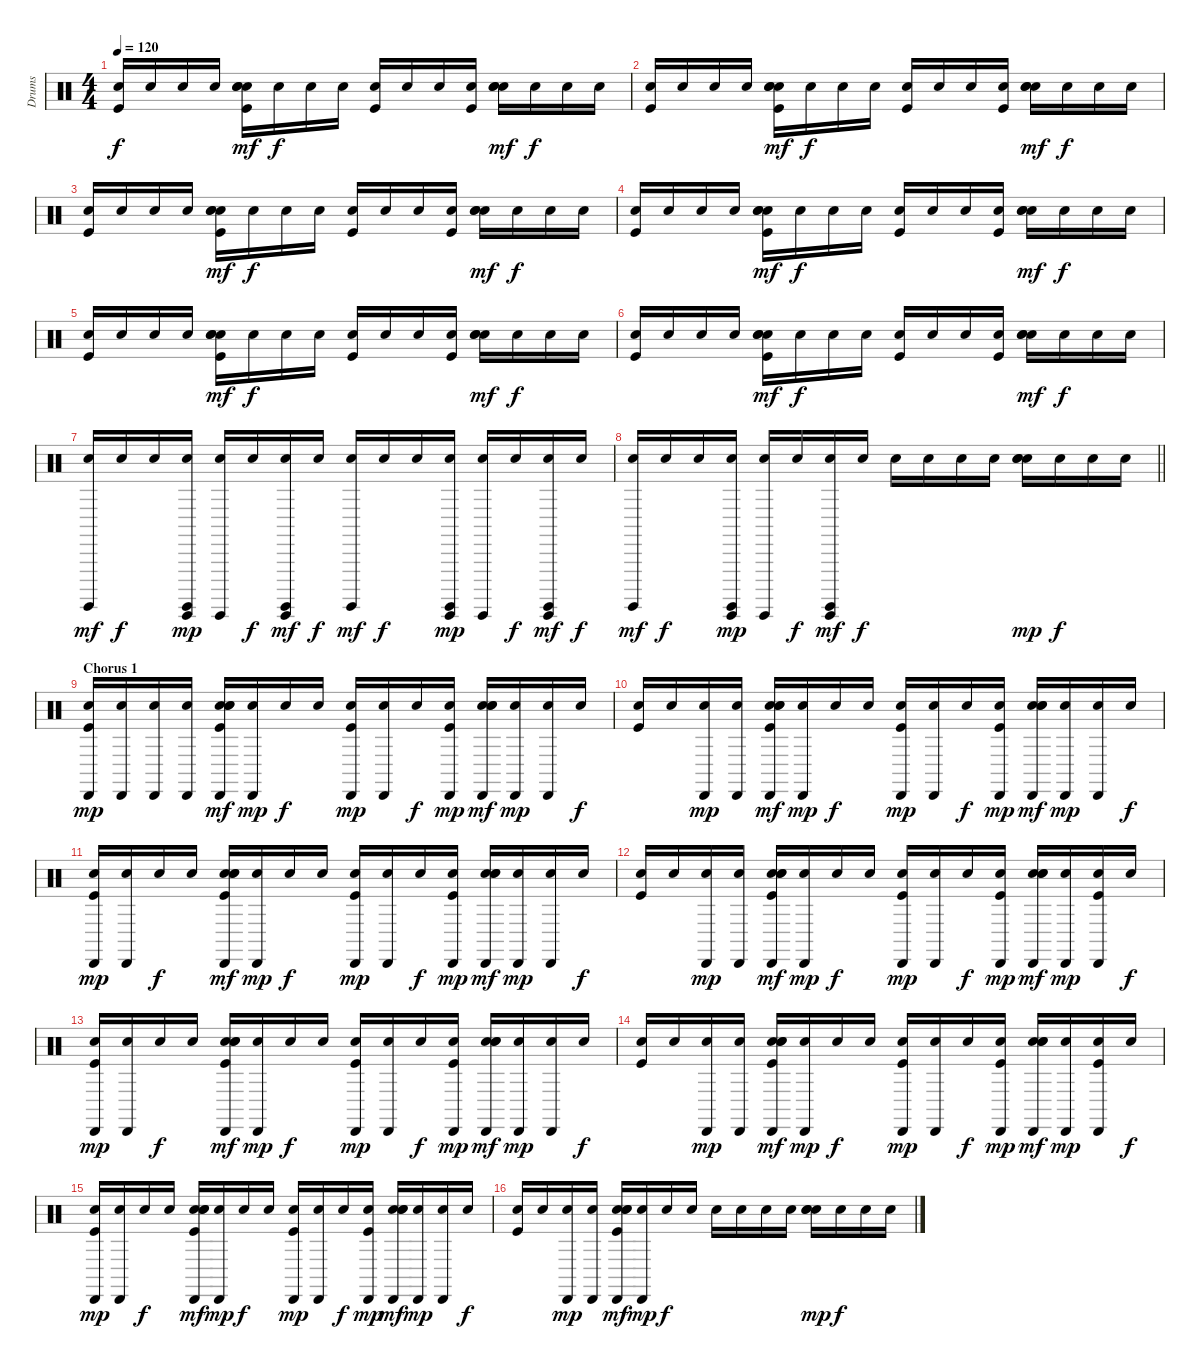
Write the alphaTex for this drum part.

\track ("Drums" "Drums") {instrument percussion}
\staff {score}
\articulation defaults
\ts (4 4)
\tempo 120
\clef neutral
\ks c
("Snare (hit)" "Kick (hit)").16{dy f} "Snare (hit)".16 "Snare (hit)".16 "Snare (hit)".16 ("Snare (hit)" "Hand Clap (hit)" "Electric Snare (hit)" "Kick (hit)").16{dy mf} "Snare (hit)".16{dy f} "Snare (hit)".16 "Snare (hit)".16 ("Snare (hit)" "Kick (hit)").16 "Snare (hit)".16 "Snare (hit)".16 ("Snare (hit)" "Kick (hit)").16 ("Snare (hit)" "Hand Clap (hit)" "Electric Snare (hit)").16{dy mf} "Snare (hit)".16{dy f} "Snare (hit)".16 "Snare (hit)".16 |
("Snare (hit)" "Kick (hit)").16 "Snare (hit)".16 "Snare (hit)".16 "Snare (hit)".16 ("Snare (hit)" "Hand Clap (hit)" "Electric Snare (hit)" "Kick (hit)").16{dy mf} "Snare (hit)".16{dy f} "Snare (hit)".16 "Snare (hit)".16 ("Snare (hit)" "Kick (hit)").16 "Snare (hit)".16 "Snare (hit)".16 ("Snare (hit)" "Kick (hit)").16 ("Snare (hit)" "Hand Clap (hit)" "Electric Snare (hit)").16{dy mf} "Snare (hit)".16{dy f} "Snare (hit)".16 "Snare (hit)".16 |
("Snare (hit)" "Kick (hit)").16 "Snare (hit)".16 "Snare (hit)".16 "Snare (hit)".16 ("Snare (hit)" "Hand Clap (hit)" "Electric Snare (hit)" "Kick (hit)").16{dy mf} "Snare (hit)".16{dy f} "Snare (hit)".16 "Snare (hit)".16 ("Snare (hit)" "Kick (hit)").16 "Snare (hit)".16 "Snare (hit)".16 ("Snare (hit)" "Kick (hit)").16 ("Snare (hit)" "Hand Clap (hit)" "Electric Snare (hit)").16{dy mf} "Snare (hit)".16{dy f} "Snare (hit)".16 "Snare (hit)".16 |
("Snare (hit)" "Kick (hit)").16 "Snare (hit)".16 "Snare (hit)".16 "Snare (hit)".16 ("Snare (hit)" "Hand Clap (hit)" "Electric Snare (hit)" "Kick (hit)").16{dy mf} "Snare (hit)".16{dy f} "Snare (hit)".16 "Snare (hit)".16 ("Snare (hit)" "Kick (hit)").16 "Snare (hit)".16 "Snare (hit)".16 ("Snare (hit)" "Kick (hit)").16 ("Snare (hit)" "Hand Clap (hit)" "Electric Snare (hit)").16{dy mf} "Snare (hit)".16{dy f} "Snare (hit)".16 "Snare (hit)".16 |
("Snare (hit)" "Kick (hit)").16 "Snare (hit)".16 "Snare (hit)".16 "Snare (hit)".16 ("Snare (hit)" "Hand Clap (hit)" "Electric Snare (hit)" "Kick (hit)").16{dy mf} "Snare (hit)".16{dy f} "Snare (hit)".16 "Snare (hit)".16 ("Snare (hit)" "Kick (hit)").16 "Snare (hit)".16 "Snare (hit)".16 ("Snare (hit)" "Kick (hit)").16 ("Snare (hit)" "Hand Clap (hit)" "Electric Snare (hit)").16{dy mf} "Snare (hit)".16{dy f} "Snare (hit)".16 "Snare (hit)".16 |
("Snare (hit)" "Kick (hit)").16 "Snare (hit)".16 "Snare (hit)".16 "Snare (hit)".16 ("Snare (hit)" "Hand Clap (hit)" "Electric Snare (hit)" "Kick (hit)").16{dy mf} "Snare (hit)".16{dy f} "Snare (hit)".16 "Snare (hit)".16 ("Snare (hit)" "Kick (hit)").16 "Snare (hit)".16 "Snare (hit)".16 ("Snare (hit)" "Kick (hit)").16 ("Snare (hit)" "Hand Clap (hit)" "Electric Snare (hit)").16{dy mf} "Snare (hit)".16{dy f} "Snare (hit)".16 "Snare (hit)".16 |
("Snare (hit)" "Surdo (hit)").16{dy mf} "Snare (hit)".16{dy f} "Snare (hit)".16 ("Snare (hit)" "Guiro (hit)" "Surdo (hit)").16{dy mp} ("Snare (hit)" "Guiro (hit)").16 "Snare (hit)".16{dy f} ("Snare (hit)" "Guiro (hit)" "Surdo (hit)").16{dy mf} "Snare (hit)".16{dy f} ("Snare (hit)" "Surdo (hit)").16{dy mf} "Snare (hit)".16{dy f} "Snare (hit)".16 ("Snare (hit)" "Guiro (hit)" "Surdo (hit)").16{dy mp} ("Snare (hit)" "Guiro (hit)").16 "Snare (hit)".16{dy f} ("Snare (hit)" "Guiro (hit)" "Surdo (hit)").16{dy mf} "Snare (hit)".16{dy f} |
\barLineRight lightlight
("Snare (hit)" "Surdo (hit)").16{dy mf} "Snare (hit)".16{dy f} "Snare (hit)".16 ("Snare (hit)" "Guiro (hit)" "Surdo (hit)").16{dy mp} ("Snare (hit)" "Guiro (hit)").16 "Snare (hit)".16{dy f} ("Snare (hit)" "Guiro (hit)" "Surdo (hit)").16{dy mf} "Snare (hit)".16{dy f} "Snare (hit)".16 "Snare (hit)".16 "Snare (hit)".16 "Snare (hit)".16 ("Snare (hit)" "Hand Clap (hit)" "Electric Snare (hit)").16{dy mp} "Snare (hit)".16{dy f} "Snare (hit)".16 "Snare (hit)".16 |
\section ("" "Chorus 1")
("Snare (hit)" "Cabasa (hit)" "Kick (hit)").16{dy mp} ("Snare (hit)" "Cabasa (hit)").16 ("Snare (hit)" "Cabasa (hit)").16 ("Snare (hit)" "Cabasa (hit)").16 ("Snare (hit)" "Cabasa (hit)" "Hand Clap (hit)" "Electric Snare (hit)" "Kick (hit)").16{dy mf} ("Snare (hit)" "Cabasa (hit)").16{dy mp} "Snare (hit)".16{dy f} "Snare (hit)".16 ("Snare (hit)" "Cabasa (hit)" "Kick (hit)").16{dy mp} ("Snare (hit)" "Cabasa (hit)").16 "Snare (hit)".16{dy f} ("Snare (hit)" "Cabasa (hit)" "Kick (hit)").16{dy mp} ("Snare (hit)" "Cabasa (hit)" "Hand Clap (hit)" "Electric Snare (hit)").16{dy mf} ("Snare (hit)" "Cabasa (hit)").16{dy mp} ("Snare (hit)" "Cabasa (hit)").16 "Snare (hit)".16{dy f} |
("Snare (hit)" "Kick (hit)").16 "Snare (hit)".16 ("Snare (hit)" "Cabasa (hit)").16{dy mp} ("Snare (hit)" "Cabasa (hit)").16 ("Snare (hit)" "Cabasa (hit)" "Hand Clap (hit)" "Electric Snare (hit)" "Kick (hit)").16{dy mf} ("Snare (hit)" "Cabasa (hit)").16{dy mp} "Snare (hit)".16{dy f} "Snare (hit)".16 ("Snare (hit)" "Cabasa (hit)" "Kick (hit)").16{dy mp} ("Snare (hit)" "Cabasa (hit)").16 "Snare (hit)".16{dy f} ("Snare (hit)" "Cabasa (hit)" "Kick (hit)").16{dy mp} ("Snare (hit)" "Cabasa (hit)" "Hand Clap (hit)" "Electric Snare (hit)").16{dy mf} ("Snare (hit)" "Cabasa (hit)").16{dy mp} ("Snare (hit)" "Cabasa (hit)").16 "Snare (hit)".16{dy f} |
("Snare (hit)" "Cabasa (hit)" "Kick (hit)").16{dy mp} ("Snare (hit)" "Cabasa (hit)").16 "Snare (hit)".16{dy f} "Snare (hit)".16 ("Snare (hit)" "Cabasa (hit)" "Hand Clap (hit)" "Electric Snare (hit)" "Kick (hit)").16{dy mf} ("Snare (hit)" "Cabasa (hit)").16{dy mp} "Snare (hit)".16{dy f} "Snare (hit)".16 ("Snare (hit)" "Cabasa (hit)" "Kick (hit)").16{dy mp} ("Snare (hit)" "Cabasa (hit)").16 "Snare (hit)".16{dy f} ("Snare (hit)" "Cabasa (hit)" "Kick (hit)").16{dy mp} ("Snare (hit)" "Cabasa (hit)" "Hand Clap (hit)" "Electric Snare (hit)").16{dy mf} ("Snare (hit)" "Cabasa (hit)").16{dy mp} ("Snare (hit)" "Cabasa (hit)").16 "Snare (hit)".16{dy f} |
("Snare (hit)" "Kick (hit)").16 "Snare (hit)".16 ("Snare (hit)" "Cabasa (hit)").16{dy mp} ("Snare (hit)" "Cabasa (hit)").16 ("Snare (hit)" "Cabasa (hit)" "Hand Clap (hit)" "Electric Snare (hit)" "Kick (hit)").16{dy mf} ("Snare (hit)" "Cabasa (hit)").16{dy mp} "Snare (hit)".16{dy f} "Snare (hit)".16 ("Snare (hit)" "Cabasa (hit)" "Kick (hit)").16{dy mp} ("Snare (hit)" "Cabasa (hit)").16 "Snare (hit)".16{dy f} ("Snare (hit)" "Cabasa (hit)" "Kick (hit)").16{dy mp} ("Snare (hit)" "Cabasa (hit)" "Hand Clap (hit)" "Electric Snare (hit)").16{dy mf} ("Snare (hit)" "Cabasa (hit)").16{dy mp} ("Snare (hit)" "Cabasa (hit)" "Kick (hit)").16 "Snare (hit)".16{dy f} |
("Snare (hit)" "Cabasa (hit)" "Kick (hit)").16{dy mp} ("Snare (hit)" "Cabasa (hit)").16 "Snare (hit)".16{dy f} "Snare (hit)".16 ("Snare (hit)" "Cabasa (hit)" "Hand Clap (hit)" "Electric Snare (hit)" "Kick (hit)").16{dy mf} ("Snare (hit)" "Cabasa (hit)").16{dy mp} "Snare (hit)".16{dy f} "Snare (hit)".16 ("Snare (hit)" "Cabasa (hit)" "Kick (hit)").16{dy mp} ("Snare (hit)" "Cabasa (hit)").16 "Snare (hit)".16{dy f} ("Snare (hit)" "Cabasa (hit)" "Kick (hit)").16{dy mp} ("Snare (hit)" "Cabasa (hit)" "Hand Clap (hit)" "Electric Snare (hit)").16{dy mf} ("Snare (hit)" "Cabasa (hit)").16{dy mp} ("Snare (hit)" "Cabasa (hit)").16 "Snare (hit)".16{dy f} |
("Snare (hit)" "Kick (hit)").16 "Snare (hit)".16 ("Snare (hit)" "Cabasa (hit)").16{dy mp} ("Snare (hit)" "Cabasa (hit)").16 ("Snare (hit)" "Cabasa (hit)" "Hand Clap (hit)" "Electric Snare (hit)" "Kick (hit)").16{dy mf} ("Snare (hit)" "Cabasa (hit)").16{dy mp} "Snare (hit)".16{dy f} "Snare (hit)".16 ("Snare (hit)" "Cabasa (hit)" "Kick (hit)").16{dy mp} ("Snare (hit)" "Cabasa (hit)").16 "Snare (hit)".16{dy f} ("Snare (hit)" "Cabasa (hit)" "Kick (hit)").16{dy mp} ("Snare (hit)" "Cabasa (hit)" "Hand Clap (hit)" "Electric Snare (hit)").16{dy mf} ("Snare (hit)" "Cabasa (hit)").16{dy mp} ("Snare (hit)" "Cabasa (hit)" "Kick (hit)").16 "Snare (hit)".16{dy f} |
("Snare (hit)" "Cabasa (hit)" "Kick (hit)").16{dy mp} ("Snare (hit)" "Cabasa (hit)").16 "Snare (hit)".16{dy f} "Snare (hit)".16 ("Snare (hit)" "Cabasa (hit)" "Hand Clap (hit)" "Electric Snare (hit)" "Kick (hit)").16{dy mf} ("Snare (hit)" "Cabasa (hit)").16{dy mp} "Snare (hit)".16{dy f} "Snare (hit)".16 ("Snare (hit)" "Cabasa (hit)" "Kick (hit)").16{dy mp} ("Snare (hit)" "Cabasa (hit)").16 "Snare (hit)".16{dy f} ("Snare (hit)" "Cabasa (hit)" "Kick (hit)").16{dy mp} ("Snare (hit)" "Cabasa (hit)" "Hand Clap (hit)" "Electric Snare (hit)").16{dy mf} ("Snare (hit)" "Cabasa (hit)").16{dy mp} ("Snare (hit)" "Cabasa (hit)").16 "Snare (hit)".16{dy f} |
("Snare (hit)" "Kick (hit)").16 "Snare (hit)".16 ("Snare (hit)" "Cabasa (hit)").16{dy mp} ("Snare (hit)" "Cabasa (hit)").16 ("Snare (hit)" "Cabasa (hit)" "Hand Clap (hit)" "Electric Snare (hit)" "Kick (hit)").16{dy mf} ("Snare (hit)" "Cabasa (hit)").16{dy mp} "Snare (hit)".16{dy f} "Snare (hit)".16 "Snare (hit)".16 "Snare (hit)".16 "Snare (hit)".16 "Snare (hit)".16 ("Snare (hit)" "Hand Clap (hit)" "Electric Snare (hit)").16{dy mp} "Snare (hit)".16{dy f} "Snare (hit)".16 "Snare (hit)".16
